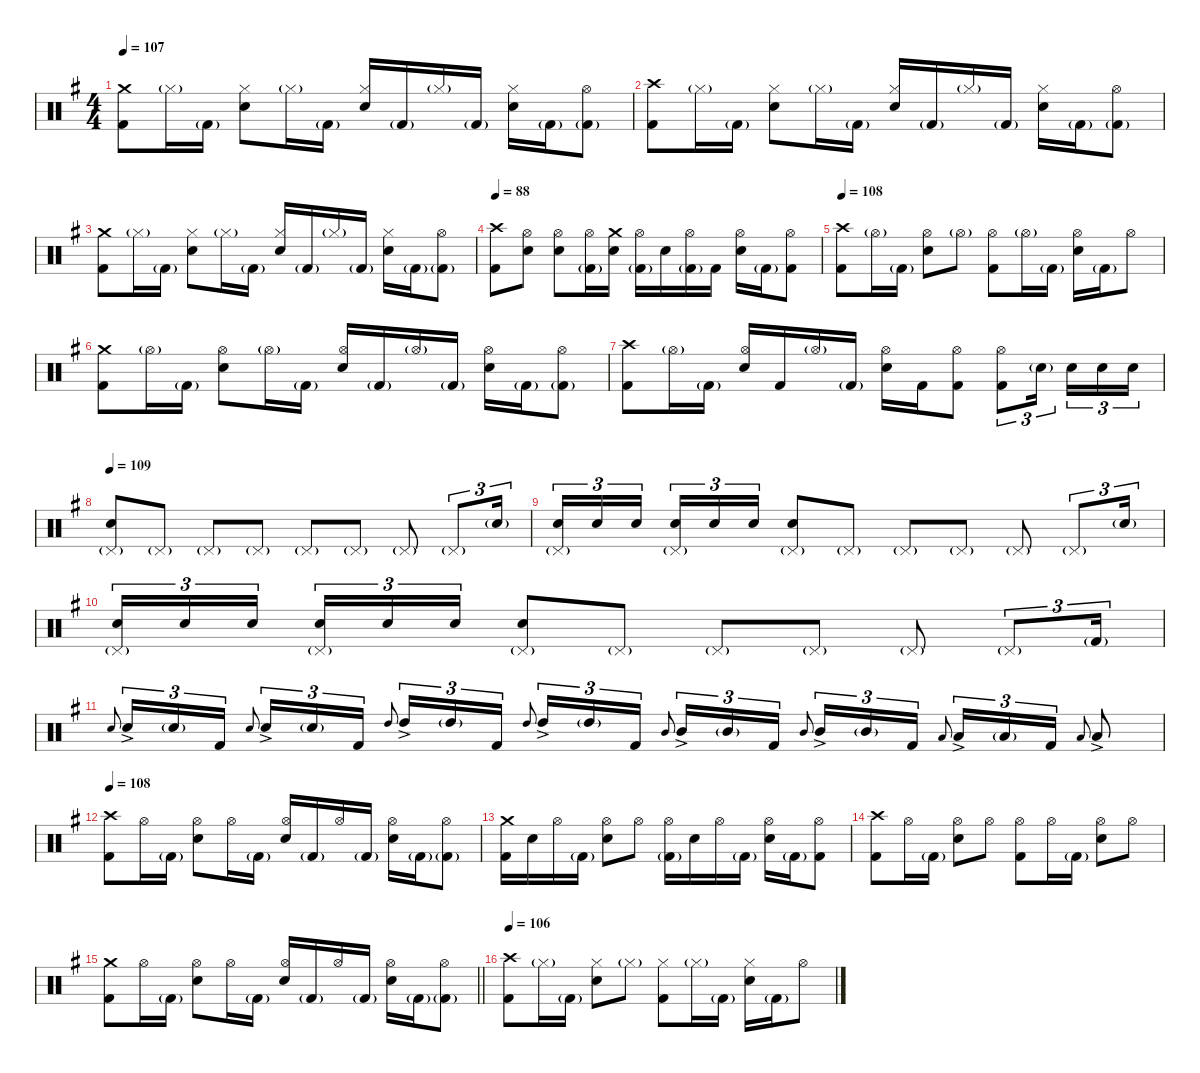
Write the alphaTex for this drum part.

\defaultSystemsLayout 4
\hideDynamics
\bracketExtendMode nobrackets
\singleTrackTrackNamePolicy hidden
\multiTrackTrackNamePolicy hidden
\firstSystemTrackNameMode fullname
\firstSystemTrackNameOrientation horizontal
\otherSystemsTrackNameOrientation horizontal
\track ("Bill" "drm.") {instrument percussion}
\staff {score}
\articulation defaults
\ts (4 4)
\tempo 107
\clef neutral
\ks eminor
("Crash medium (hit)"{acc forcenatural} "Kick (hit) 2"{acc forcenatural}).8{dy f beam Down} "Hi-Hat (closed)"{g acc forcenatural}.16{dy mf beam Down} "Kick (hit) 2"{g acc forcenatural}.16{beam Down} ("Hi-Hat (closed)"{acc forcenatural} "Snare (hit) 2"{acc forcenatural}).8{dy f beam Down} "Hi-Hat (closed)"{g acc forcenatural}.16{dy mf beam Down} "Kick (hit) 2"{g acc forcenatural}.16{beam Down} ("Hi-Hat (closed)"{acc forcenatural} "Snare (hit) 2"{acc forcenatural}).16{dy f beam Up} "Kick (hit) 2"{g acc forcenatural}.16{dy mf beam Up} "Hi-Hat (closed)"{g acc forcenatural}.16{beam Up} "Kick (hit) 2"{g acc forcenatural}.16{beam Up} ("Hi-Hat (closed)"{acc forcenatural} "Snare (hit) 2"{acc forcenatural}).16{dy f beam Down} "Kick (hit) 2"{g acc forcenatural}.16{dy mf beam Down} ("Hi-Hat (open)"{acc forcenatural} "Kick (hit) 2"{g acc forcenatural}).8{dy f beam Down} |
("Crash high (hit)"{acc forcenatural} "Kick (hit) 2"{acc forcenatural}).8{beam Down} "Hi-Hat (closed)"{g acc forcenatural}.16{dy mf beam Down} "Kick (hit) 2"{g acc forcenatural}.16{beam Down} ("Hi-Hat (closed)"{acc forcenatural} "Snare (hit) 2"{acc forcenatural}).8{dy f beam Down} "Hi-Hat (closed)"{g acc forcenatural}.16{dy mf beam Down} "Kick (hit) 2"{g acc forcenatural}.16{beam Down} ("Hi-Hat (closed)"{acc forcenatural} "Snare (hit) 2"{acc forcenatural}).16{dy f beam Up} "Kick (hit) 2"{g acc forcenatural}.16{dy mf beam Up} "Hi-Hat (closed)"{g acc forcenatural}.16{beam Up} "Kick (hit) 2"{g acc forcenatural}.16{beam Up} ("Hi-Hat (closed)"{acc forcenatural} "Snare (hit) 2"{acc forcenatural}).16{dy f beam Down} "Kick (hit) 2"{g acc forcenatural}.16{dy mf beam Down} ("Hi-Hat (open)"{acc forcenatural} "Kick (hit) 2"{g acc forcenatural}).8{dy f beam Down} |
("Crash medium (hit)"{acc forcenatural} "Kick (hit) 2"{acc forcenatural}).8{beam Down} "Hi-Hat (closed)"{g acc forcenatural}.16{dy mf beam Down} "Kick (hit) 2"{g acc forcenatural}.16{beam Down} ("Hi-Hat (closed)"{acc forcenatural} "Snare (hit) 2"{acc forcenatural}).8{dy f beam Down} "Hi-Hat (closed)"{g acc forcenatural}.16{dy mf beam Down} "Kick (hit) 2"{g acc forcenatural}.16{beam Down} ("Hi-Hat (closed)"{acc forcenatural} "Snare (hit) 2"{acc forcenatural}).16{dy f beam Up} "Kick (hit) 2"{g acc forcenatural}.16{dy mf beam Up} "Hi-Hat (closed)"{g acc forcenatural}.16{beam Up} "Kick (hit) 2"{g acc forcenatural}.16{beam Up} ("Hi-Hat (closed)"{acc forcenatural} "Snare (hit) 2"{acc forcenatural}).16{dy f beam Down} "Kick (hit) 2"{g acc forcenatural}.16{dy mf beam Down} ("Hi-Hat (open)"{acc forcenatural} "Kick (hit) 2"{g acc forcenatural}).8{dy f beam Down} |
\tempo 88
("Crash high (hit)"{acc forcenatural} "Kick (hit) 2"{acc forcenatural}).8{beam Down} ("Hi-Hat (open)"{acc forcenatural} "Snare (hit) 2"{acc forcenatural}).8{dy mf beam Down} ("Hi-Hat (open)"{acc forcenatural} "Snare (hit) 2"{acc forcenatural}).8{beam Down} ("Hi-Hat (open)"{acc forcenatural} "Kick (hit) 2"{g acc forcenatural}).16{beam Down} ("Crash medium (hit)"{acc forcenatural} "Snare (hit) 2"{acc forcenatural}).16{beam Down} ("Hi-Hat (open)"{acc forcenatural} "Kick (hit) 2"{g acc forcenatural}).16{beam Down} "Snare (hit) 2"{acc forcenatural}.16{dy f beam Down} ("Hi-Hat (open)"{acc forcenatural} "Kick (hit) 2"{g acc forcenatural}).16{dy mf beam Down} "Kick (hit) 2"{acc forcenatural}.16{dy f beam Down} ("Hi-Hat (open)"{acc forcenatural} "Snare (hit) 2"{acc forcenatural}).16{dy mf beam Down} "Kick (hit) 2"{g acc forcenatural}.16{beam Down} ("Hi-Hat (open)"{acc forcenatural} "Kick (hit) 2"{acc forcenatural}).8{beam Down} |
\tempo 108
("Crash high (hit)"{acc forcenatural} "Kick (hit) 2"{acc forcenatural}).8{dy f beam Down} "Hi-Hat (open)"{g acc forcenatural}.16{beam Down} "Kick (hit) 2"{g acc forcenatural}.16{dy mf beam Down} ("Hi-Hat (open)"{acc forcenatural} "Snare (hit) 2"{acc forcenatural}).8{dy f beam Down} "Hi-Hat (open)"{g acc forcenatural}.8{beam Down} ("Hi-Hat (open)"{acc forcenatural} "Kick (hit) 2"{acc forcenatural}).8{beam Down} "Hi-Hat (open)"{g acc forcenatural}.16{beam Down} "Kick (hit) 2"{g acc forcenatural}.16{dy mf beam Down} ("Hi-Hat (open)"{acc forcenatural} "Snare (hit) 2"{acc forcenatural}).16{dy f beam Down} "Kick (hit) 2"{g acc forcenatural}.16{dy mf beam Down} "Hi-Hat (open)"{acc forcenatural}.8{dy f beam Down} |
("Crash medium (hit)"{acc forcenatural} "Kick (hit) 2"{acc forcenatural}).8{beam Down} "Hi-Hat (open)"{g acc forcenatural}.16{beam Down} "Kick (hit) 2"{g acc forcenatural}.16{dy mf beam Down} ("Hi-Hat (open)"{acc forcenatural} "Snare (hit) 2"{acc forcenatural}).8{dy f beam Down} "Hi-Hat (open)"{g acc forcenatural}.16{beam Down} "Kick (hit) 2"{g acc forcenatural}.16{dy mf beam Down} ("Hi-Hat (open)"{acc forcenatural} "Snare (hit) 2"{acc forcenatural}).16{dy f beam Up} "Kick (hit) 2"{g acc forcenatural}.16{dy mf beam Up} "Hi-Hat (open)"{g acc forcenatural}.16{dy f beam Up} "Kick (hit) 2"{g acc forcenatural}.16{dy mf beam Up} ("Hi-Hat (open)"{acc forcenatural} "Snare (hit) 2"{acc forcenatural}).16{dy f beam Down} "Kick (hit) 2"{g acc forcenatural}.16{dy mf beam Down} ("Hi-Hat (open)"{acc forcenatural} "Kick (hit) 2"{g acc forcenatural}).8{dy f beam Down} |
("Crash high (hit)"{acc forcenatural} "Kick (hit) 2"{acc forcenatural}).8{beam Down} "Hi-Hat (open)"{g acc forcenatural}.16{beam Down} "Kick (hit) 2"{g acc forcenatural}.16{dy mf beam Down} ("Hi-Hat (open)"{acc forcenatural} "Snare (hit) 2"{acc forcenatural}).16{dy f beam Up} "Kick (hit) 2"{acc forcenatural}.16{beam Up} "Hi-Hat (open)"{g acc forcenatural}.16{beam Up} "Kick (hit) 2"{g acc forcenatural}.16{dy mf beam Up} ("Hi-Hat (open)"{acc forcenatural} "Snare (hit) 2"{acc forcenatural}).16{dy f beam Down} "Kick (hit) 2"{acc forcenatural}.16{beam Down} ("Hi-Hat (open)"{acc forcenatural} "Kick (hit) 2"{acc forcenatural}).8{beam Down} ("Hi-Hat (open)"{acc forcenatural} "Kick (hit) 2"{acc forcenatural}).8{tu (3 2) beam Down} "Snare (hit) 2"{g acc forcenatural}.16{tu (3 2) dy mf beam Down} "Snare (hit) 2"{acc forcenatural}.16{tu (3 2) dy mp beam Down} "Snare (hit) 2"{acc forcenatural}.16{tu (3 2) dy mf beam Down} "Snare (hit) 2"{acc forcenatural}.16{tu (3 2) dy f beam Down} |
\tempo 109
("Pedal Hi-Hat (hit)"{g acc forcenatural} "Snare (hit) 2"{acc forcenatural}).8{beam Up} "Pedal Hi-Hat (hit)"{g acc forcenatural}.8{dy mf beam Up} "Pedal Hi-Hat (hit)"{g acc forcenatural}.8{beam Up} "Pedal Hi-Hat (hit)"{g acc forcenatural}.8{beam Up} "Pedal Hi-Hat (hit)"{g acc forcenatural}.8{beam Up} "Pedal Hi-Hat (hit)"{g acc forcenatural}.8{beam Up} "Pedal Hi-Hat (hit)"{g acc forcenatural}.8{beam Up} "Pedal Hi-Hat (hit)"{g acc forcenatural}.8{tu (3 2) beam Up} "Snare (hit) 2"{g acc forcenatural}.16{tu (3 2) beam Up} |
("Pedal Hi-Hat (hit)"{g acc forcenatural} "Snare (hit) 2"{acc forcenatural}).16{tu (3 2) dy f beam Up} "Snare (hit) 2"{acc forcenatural}.16{tu (3 2) dy mf beam Up} "Snare (hit) 2"{acc forcenatural}.16{tu (3 2) dy mp beam Up} ("Pedal Hi-Hat (hit)"{g acc forcenatural} "Snare (hit) 2"{acc forcenatural}).16{tu (3 2) dy mf beam Up} "Snare (hit) 2"{acc forcenatural}.16{tu (3 2) beam Up} "Snare (hit) 2"{acc forcenatural}.16{tu (3 2) dy f beam Up} ("Pedal Hi-Hat (hit)"{g acc forcenatural} "Snare (hit) 2"{acc forcenatural}).8{beam Up} "Pedal Hi-Hat (hit)"{g acc forcenatural}.8{dy mf beam Up} "Pedal Hi-Hat (hit)"{g acc forcenatural}.8{beam Up} "Pedal Hi-Hat (hit)"{g acc forcenatural}.8{beam Up} "Pedal Hi-Hat (hit)"{g acc forcenatural}.8{beam Up} "Pedal Hi-Hat (hit)"{g acc forcenatural}.8{tu (3 2) beam Up} "Snare (hit) 2"{g acc forcenatural}.16{tu (3 2) beam Up} |
("Pedal Hi-Hat (hit)"{g acc forcenatural} "Snare (hit) 2"{acc forcenatural}).16{tu (3 2) dy f beam Up} "Snare (hit) 2"{acc forcenatural}.16{tu (3 2) dy mf beam Up} "Snare (hit) 2"{acc forcenatural}.16{tu (3 2) dy mp beam Up} ("Pedal Hi-Hat (hit)"{g acc forcenatural} "Snare (hit) 2"{acc forcenatural}).16{tu (3 2) dy mf beam Up} "Snare (hit) 2"{acc forcenatural}.16{tu (3 2) beam Up} "Snare (hit) 2"{acc forcenatural}.16{tu (3 2) dy f beam Up} ("Pedal Hi-Hat (hit)"{g acc forcenatural} "Snare (hit) 2"{acc forcenatural}).8{beam Up} "Pedal Hi-Hat (hit)"{g acc forcenatural}.8{dy mf beam Up} "Pedal Hi-Hat (hit)"{g acc forcenatural}.8{beam Up} "Pedal Hi-Hat (hit)"{g acc forcenatural}.8{beam Up} "Pedal Hi-Hat (hit)"{g acc forcenatural}.8{beam Up} "Pedal Hi-Hat (hit)"{g acc forcenatural}.8{tu (3 2) beam Up} "Kick (hit) 2"{g acc forcenatural}.16{tu (3 2) beam Up} |
"Electric Snare (hit)"{acc forcenatural}.8{gr onbeat dy f beam Up} "Snare (hit) 2"{ac acc forcenatural}.16{tu (3 2) beam Up} "Snare (hit) 2"{g acc forcenatural}.16{tu (3 2) dy mf beam Up} "Kick (hit) 2"{acc forcenatural}.16{tu (3 2) beam Up} "Electric Snare (hit)"{acc forcenatural}.8{gr onbeat dy f beam Up} "Snare (hit) 2"{ac acc forcenatural}.16{tu (3 2) beam Up} "Snare (hit) 2"{g acc forcenatural}.16{tu (3 2) dy mf beam Up} "Kick (hit) 2"{acc forcenatural}.16{tu (3 2) beam Up} "High Tom (hit)"{acc forcenatural}.8{gr onbeat dy f beam Up} "High Tom (hit)"{ac acc forcenatural}.16{tu (3 2) beam Up} "High Tom (hit)"{g acc forcenatural}.16{tu (3 2) dy mf beam Up} "Kick (hit) 2"{acc forcenatural}.16{tu (3 2) beam Up} "High Tom (hit)"{acc forcenatural}.8{gr onbeat dy f beam Up} "High Tom (hit)"{ac acc forcenatural}.16{tu (3 2) beam Up} "High Tom (hit)"{g acc forcenatural}.16{tu (3 2) dy mf beam Up} "Kick (hit) 2"{acc forcenatural}.16{tu (3 2) beam Up} "Mid Tom (hit)"{acc forcenatural}.8{gr onbeat dy f beam Up} "Mid Tom (hit)"{ac acc forcenatural}.16{tu (3 2) beam Up} "Mid Tom (hit)"{g acc forcenatural}.16{tu (3 2) dy mf beam Up} "Kick (hit) 2"{acc forcenatural}.16{tu (3 2) beam Up} "Mid Tom (hit)"{acc forcenatural}.8{gr onbeat dy f beam Up} "Mid Tom (hit)"{ac acc forcenatural}.16{tu (3 2) beam Up} "Mid Tom (hit)"{g acc forcenatural}.16{tu (3 2) dy mf beam Up} "Kick (hit) 2"{acc forcenatural}.16{tu (3 2) beam Up} "Low Tom (hit)"{acc forcenatural}.8{gr onbeat dy f beam Up} "Low Tom (hit)"{ac acc forcenatural}.16{tu (3 2) beam Up} "Low Tom (hit)"{g acc forcenatural}.16{tu (3 2) dy mf beam Up} "Kick (hit) 2"{acc forcenatural}.16{tu (3 2) beam Up} "Low Tom (hit)"{acc forcenatural}.8{gr onbeat dy f beam Up} "Low Tom (hit)"{ac acc forcenatural}.8{beam Up} |
\tempo 108
("Crash high (hit)"{acc forcenatural} "Kick (hit) 2"{acc forcenatural}).8{beam Down} "Hi-Hat (open)"{acc forcenatural}.16{dy mf beam Down} "Kick (hit) 2"{g acc forcenatural}.16{beam Down} ("Hi-Hat (open)"{acc forcenatural} "Snare (hit) 2"{acc forcenatural}).8{dy f beam Down} "Hi-Hat (open)"{acc forcenatural}.16{dy mf beam Down} "Kick (hit) 2"{g acc forcenatural}.16{beam Down} ("Hi-Hat (open)"{acc forcenatural} "Snare (hit) 2"{acc forcenatural}).16{dy f beam Up} "Kick (hit) 2"{g acc forcenatural}.16{dy mf beam Up} "Hi-Hat (open)"{acc forcenatural}.16{beam Up} "Kick (hit) 2"{g acc forcenatural}.16{beam Up} ("Hi-Hat (open)"{acc forcenatural} "Snare (hit) 2"{acc forcenatural}).16{dy f beam Down} "Kick (hit) 2"{g acc forcenatural}.16{dy mf beam Down} ("Hi-Hat (open)"{acc forcenatural} "Kick (hit) 2"{g acc forcenatural}).8{dy f beam Down} |
("Crash medium (hit)"{acc forcenatural} "Kick (hit) 2"{acc forcenatural}).16{beam Down} "Snare (hit) 2"{acc forcenatural}.16{beam Down} "Hi-Hat (open)"{acc forcenatural}.16{dy mf beam Down} "Kick (hit) 2"{g acc forcenatural}.16{beam Down} ("Hi-Hat (open)"{acc forcenatural} "Snare (hit) 2"{acc forcenatural}).8{dy f beam Down} "Hi-Hat (open)"{acc forcenatural}.8{dy mf beam Down} ("Hi-Hat (open)"{acc forcenatural} "Kick (hit) 2"{g acc forcenatural}).16{dy f beam Down} "Snare (hit) 2"{acc forcenatural}.16{beam Down} "Hi-Hat (open)"{acc forcenatural}.16{dy mf beam Down} "Kick (hit) 2"{g acc forcenatural}.16{beam Down} ("Hi-Hat (open)"{acc forcenatural} "Snare (hit) 2"{acc forcenatural}).16{dy f beam Down} "Kick (hit) 2"{g acc forcenatural}.16{dy mf beam Down} ("Hi-Hat (open)"{acc forcenatural} "Kick (hit) 2"{acc forcenatural}).8{dy f beam Down} |
("Crash high (hit)"{acc forcenatural} "Kick (hit) 2"{acc forcenatural}).8{beam Down} "Hi-Hat (open)"{acc forcenatural}.16{dy mf beam Down} "Kick (hit) 2"{g acc forcenatural}.16{beam Down} ("Hi-Hat (open)"{acc forcenatural} "Snare (hit) 2"{acc forcenatural}).8{dy f beam Down} "Hi-Hat (open)"{acc forcenatural}.8{dy mf beam Down} ("Hi-Hat (open)"{acc forcenatural} "Kick (hit) 2"{acc forcenatural}).8{dy f beam Down} "Hi-Hat (open)"{acc forcenatural}.16{dy mf beam Down} "Kick (hit) 2"{g acc forcenatural}.16{beam Down} ("Hi-Hat (open)"{acc forcenatural} "Snare (hit) 2"{acc forcenatural}).8{dy f beam Down} "Hi-Hat (open)"{acc forcenatural}.8{dy mf beam Down} |
\barLineRight lightlight
("Crash medium (hit)"{acc forcenatural} "Kick (hit) 2"{acc forcenatural}).8{dy f beam Down} "Hi-Hat (open)"{acc forcenatural}.16{dy mf beam Down} "Kick (hit) 2"{g acc forcenatural}.16{beam Down} ("Hi-Hat (open)"{acc forcenatural} "Snare (hit) 2"{acc forcenatural}).8{dy f beam Down} "Hi-Hat (open)"{acc forcenatural}.16{dy mf beam Down} "Kick (hit) 2"{g acc forcenatural}.16{beam Down} ("Hi-Hat (open)"{acc forcenatural} "Snare (hit) 2"{acc forcenatural}).16{dy f beam Up} "Kick (hit) 2"{g acc forcenatural}.16{dy mf beam Up} "Hi-Hat (open)"{acc forcenatural}.16{beam Up} "Kick (hit) 2"{g acc forcenatural}.16{beam Up} ("Hi-Hat (open)"{acc forcenatural} "Snare (hit) 2"{acc forcenatural}).16{dy f beam Down} "Kick (hit) 2"{g acc forcenatural}.16{dy mf beam Down} ("Hi-Hat (open)"{acc forcenatural} "Kick (hit) 2"{g acc forcenatural}).8{dy f beam Down} |
\section ("" "")
\tempo 106
("Crash high (hit)"{acc forcenatural} "Kick (hit) 2"{acc forcenatural}).8{beam Down} "Hi-Hat (closed)"{g acc forcenatural}.16{dy mf beam Down} "Kick (hit) 2"{g acc forcenatural}.16{beam Down} ("Hi-Hat (closed)"{acc forcenatural} "Snare (hit) 2"{acc forcenatural}).8{dy f beam Down} "Hi-Hat (closed)"{g acc forcenatural}.8{dy mf beam Down} ("Hi-Hat (closed)"{acc forcenatural} "Kick (hit) 2"{acc forcenatural}).8{dy f beam Down} "Hi-Hat (closed)"{g acc forcenatural}.16{dy mf beam Down} "Kick (hit) 2"{g acc forcenatural}.16{beam Down} ("Hi-Hat (closed)"{acc forcenatural} "Snare (hit) 2"{acc forcenatural}).16{dy f beam Down} "Kick (hit) 2"{g acc forcenatural}.16{dy mf beam Down} "Hi-Hat (open)"{acc forcenatural}.8{beam Down}
